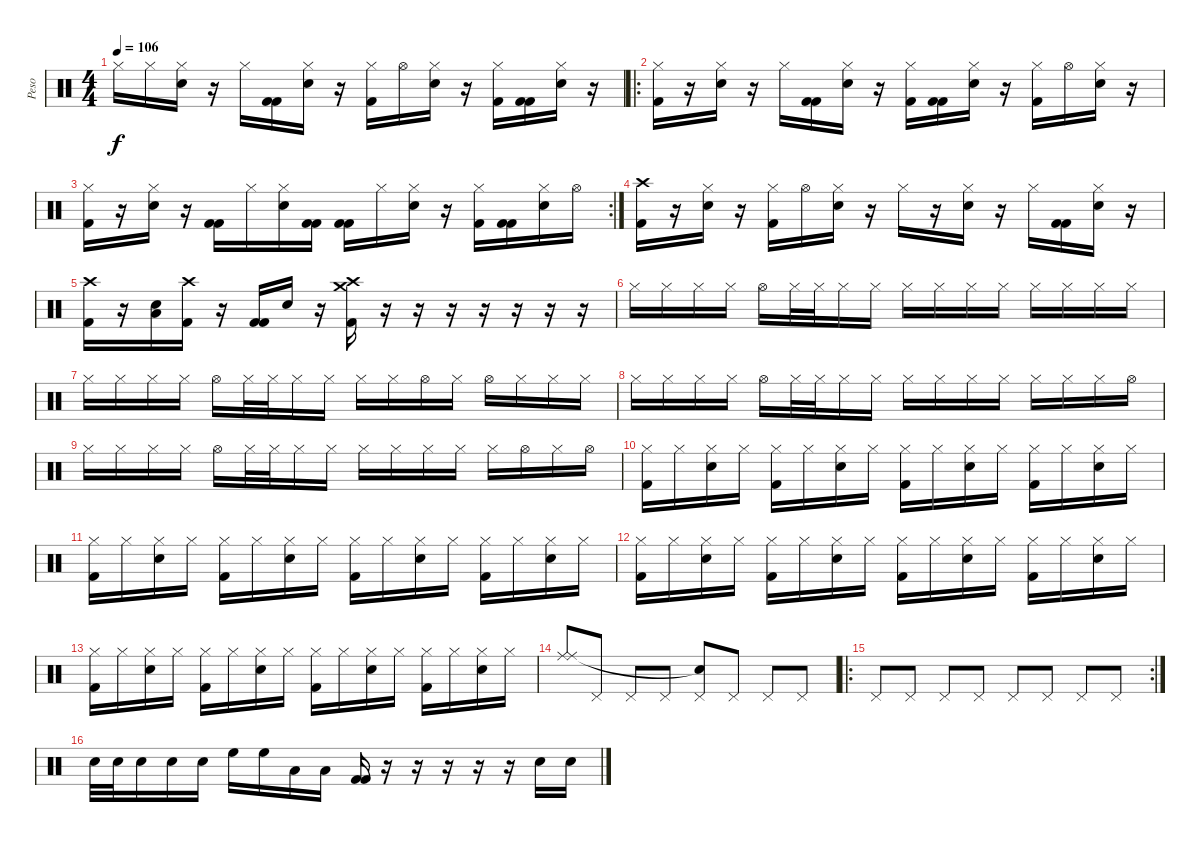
\track ("Peso" "Peso") {instrument percussion}
\staff {score}
\articulation defaults
\ts (4 4)
\tempo 106
\clef neutral
\ks c "Hi-Hat (closed)".16{dy f} "Hi-Hat (closed)".16
("Hi-Hat (closed)" "Snare (hit) 2").16 r.16 "Hi-Hat (closed)".16 ("Kick (hit) 2" "Kick (hit) 2").16 ("Hi-Hat (closed)" "Snare (hit) 2").16 r.16 ("Hi-Hat (closed)" "Kick (hit) 2").16 "Hi-Hat (open)".16 ("Hi-Hat (closed)" "Snare (hit) 2").16 r.16 ("Hi-Hat (closed)" "Kick (hit) 2").16 ("Kick (hit) 2" "Kick (hit) 2").16 ("Hi-Hat (closed)" "Snare (hit) 2").16 r.16 |
\ro
("Hi-Hat (closed)" "Kick (hit) 2").16 r.16 ("Hi-Hat (closed)" "Snare (hit) 2").16 r.16 "Hi-Hat (closed)".16 ("Kick (hit) 2" "Kick (hit) 2").16 ("Hi-Hat (closed)" "Snare (hit) 2").16 r.16 ("Hi-Hat (closed)" "Kick (hit) 2").16 ("Kick (hit) 2" "Kick (hit) 2").16 ("Hi-Hat (closed)" "Snare (hit) 2").16 r.16 ("Hi-Hat (closed)" "Kick (hit) 2").16 "Hi-Hat (open)".16 ("Hi-Hat (closed)" "Snare (hit) 2").16 r.16 |
\rc 2
("Hi-Hat (closed)" "Kick (hit) 2").16 r.16 ("Hi-Hat (closed)" "Snare (hit) 2").16 r.16 ("Kick (hit) 2" "Kick (hit) 2").16 "Hi-Hat (closed)".16 ("Hi-Hat (closed)" "Snare (hit) 2").16 ("Kick (hit) 2" "Kick (hit) 2").16 ("Kick (hit) 2" "Kick (hit) 2").16 "Hi-Hat (closed)".16 ("Hi-Hat (closed)" "Snare (hit) 2").16 r.16 ("Hi-Hat (closed)" "Kick (hit) 2").16 ("Kick (hit) 2" "Kick (hit) 2").16 ("Hi-Hat (closed)" "Snare (hit) 2").16 "Hi-Hat (open)".16 |
("Crash high (hit)" "Kick (hit) 2").16 r.16 ("Hi-Hat (closed)" "Snare (hit) 2").16 r.16 ("Hi-Hat (closed)" "Kick (hit) 2").16 "Hi-Hat (open)".16 ("Hi-Hat (closed)" "Snare (hit) 2").16 r.16 "Hi-Hat (closed)".16 r.16 ("Hi-Hat (closed)" "Snare (hit) 2").16 r.16 "Hi-Hat (closed)".16 ("Kick (hit) 2" "Kick (hit) 2").16 ("Hi-Hat (closed)" "Snare (hit) 2").16 r.16 |
("Crash high (hit)" "Kick (hit) 2").16 r.16 ("Low Floor Tom (hit)" "Snare (hit) 2").16 ("Crash high (hit)" "Kick (hit) 2").16 r.16 ("Kick (hit) 2" "Kick (hit) 2").16 "Snare (hit) 2".16 r.16 ("Crash high (hit)" "Crash medium (hit)" "Kick (hit) 2").16 r.16 r.16 r.16 r.16 r.16 r.16 r.16 |
"Hi-Hat (closed)".16{volume 9} "Hi-Hat (closed)".16 "Hi-Hat (closed)".16 "Hi-Hat (closed)".16 "Hi-Hat (open)".16 "Hi-Hat (closed)".32 "Hi-Hat (closed)".32 "Hi-Hat (closed)".16 "Hi-Hat (closed)".16 "Hi-Hat (closed)".16 "Hi-Hat (closed)".16 "Hi-Hat (closed)".16 "Hi-Hat (closed)".16 "Hi-Hat (closed)".16 "Hi-Hat (closed)".16 "Hi-Hat (closed)".16 "Hi-Hat (closed)".16 |
"Hi-Hat (closed)".16 "Hi-Hat (closed)".16 "Hi-Hat (closed)".16 "Hi-Hat (closed)".16 "Hi-Hat (open)".16 "Hi-Hat (closed)".32 "Hi-Hat (closed)".32 "Hi-Hat (closed)".16 "Hi-Hat (closed)".16 "Hi-Hat (closed)".16 "Hi-Hat (closed)".16 "Hi-Hat (open)".16 "Hi-Hat (closed)".16 "Hi-Hat (open)".16 "Hi-Hat (closed)".16 "Hi-Hat (closed)".16 "Hi-Hat (closed)".16 |
"Hi-Hat (closed)".16 "Hi-Hat (closed)".16 "Hi-Hat (closed)".16 "Hi-Hat (closed)".16 "Hi-Hat (open)".16 "Hi-Hat (closed)".32 "Hi-Hat (closed)".32 "Hi-Hat (closed)".16 "Hi-Hat (closed)".16 "Hi-Hat (closed)".16 "Hi-Hat (closed)".16 "Hi-Hat (closed)".16 "Hi-Hat (closed)".16 "Hi-Hat (closed)".16 "Hi-Hat (closed)".16 "Hi-Hat (closed)".16 "Hi-Hat (open)".16 |
"Hi-Hat (closed)".16{volume 12} "Hi-Hat (closed)".16 "Hi-Hat (closed)".16 "Hi-Hat (closed)".16 "Hi-Hat (open)".16 "Hi-Hat (closed)".32 "Hi-Hat (closed)".32 "Hi-Hat (closed)".16 "Hi-Hat (closed)".16 "Hi-Hat (closed)".16{volume 14} "Hi-Hat (closed)".16 "Hi-Hat (closed)".16 "Hi-Hat (closed)".16 "Hi-Hat (closed)".16 "Hi-Hat (open)".16 "Hi-Hat (closed)".16 "Hi-Hat (open)".16 |
("Hi-Hat (closed)" "Kick (hit) 2").16 "Hi-Hat (closed)".16 ("Hi-Hat (closed)" "Snare (hit) 2").16 "Hi-Hat (closed)".16 ("Hi-Hat (closed)" "Kick (hit) 2").16 "Hi-Hat (closed)".16 ("Hi-Hat (closed)" "Snare (hit) 2").16 "Hi-Hat (closed)".16 ("Hi-Hat (closed)" "Kick (hit) 2").16 "Hi-Hat (closed)".16 ("Hi-Hat (closed)" "Snare (hit) 2").16 "Hi-Hat (closed)".16 ("Hi-Hat (closed)" "Kick (hit) 2").16 "Hi-Hat (closed)".16 ("Hi-Hat (closed)" "Snare (hit) 2").16 "Hi-Hat (closed)".16 |
("Hi-Hat (closed)" "Kick (hit) 2").16 "Hi-Hat (closed)".16 ("Hi-Hat (closed)" "Snare (hit) 2").16 "Hi-Hat (closed)".16 ("Hi-Hat (closed)" "Kick (hit) 2").16 "Hi-Hat (closed)".16 ("Hi-Hat (closed)" "Snare (hit) 2").16 "Hi-Hat (closed)".16 ("Hi-Hat (closed)" "Kick (hit) 2").16 "Hi-Hat (closed)".16 ("Hi-Hat (closed)" "Snare (hit) 2").16 "Hi-Hat (closed)".16 ("Hi-Hat (closed)" "Kick (hit) 2").16 "Hi-Hat (closed)".16 ("Hi-Hat (closed)" "Snare (hit) 2").16 "Hi-Hat (closed)".16 |
("Hi-Hat (closed)" "Kick (hit) 2").16 "Hi-Hat (closed)".16 ("Hi-Hat (closed)" "Snare (hit) 2").16 "Hi-Hat (closed)".16 ("Hi-Hat (closed)" "Kick (hit) 2").16 "Hi-Hat (closed)".16 ("Hi-Hat (closed)" "Snare (hit) 2").16 "Hi-Hat (closed)".16 ("Hi-Hat (closed)" "Kick (hit) 2").16 "Hi-Hat (closed)".16 ("Hi-Hat (closed)" "Snare (hit) 2").16 "Hi-Hat (closed)".16 ("Hi-Hat (closed)" "Kick (hit) 2").16 "Hi-Hat (closed)".16 ("Hi-Hat (closed)" "Snare (hit) 2").16 "Hi-Hat (closed)".16 |
("Hi-Hat (closed)" "Kick (hit) 2").16 "Hi-Hat (closed)".16 ("Hi-Hat (closed)" "Snare (hit) 2").16 "Hi-Hat (closed)".16 ("Hi-Hat (closed)" "Kick (hit) 2").16 "Hi-Hat (closed)".16 ("Hi-Hat (closed)" "Snare (hit) 2").16 "Hi-Hat (closed)".16 ("Hi-Hat (closed)" "Kick (hit) 2").16 "Hi-Hat (closed)".16 ("Hi-Hat (closed)" "Snare (hit) 2").16 "Hi-Hat (closed)".16 ("Hi-Hat (closed)" "Kick (hit) 2").16 "Hi-Hat (closed)".16 ("Hi-Hat (closed)" "Snare (hit) 2").16 "Hi-Hat (closed)".16 |
("Ride (middle)" "Ride (middle)").8 "Pedal Hi-Hat (hit)".8 "Pedal Hi-Hat (hit)".8 "Pedal Hi-Hat (hit)".8 ("Pedal Hi-Hat (hit)" "Snare (hit)"{t}).8 "Pedal Hi-Hat (hit)".8 "Pedal Hi-Hat (hit)".8 "Pedal Hi-Hat (hit)".8 |
\ro
\rc 2 "Pedal Hi-Hat (hit)".8 "Pedal Hi-Hat (hit)".8 "Pedal Hi-Hat (hit)".8 "Pedal Hi-Hat (hit)".8 "Pedal Hi-Hat (hit)".8 "Pedal Hi-Hat (hit)".8 "Pedal Hi-Hat (hit)".8 "Pedal Hi-Hat (hit)".8
|
"Snare (hit) 2".32 "Snare (hit) 2".32 "Snare (hit) 2".16 "Snare (hit) 2".16 "Snare (hit) 2".16 "High Floor Tom (hit)".16 "High Floor Tom (hit)".16 "Low Floor Tom (hit)".16 "Low Floor Tom (hit)".16 ("Kick (hit) 2" "Kick (hit) 2").16 r.16 r.16 r.16 r.16 r.16 "Snare (hit) 2".16 "Snare (hit) 2".16
